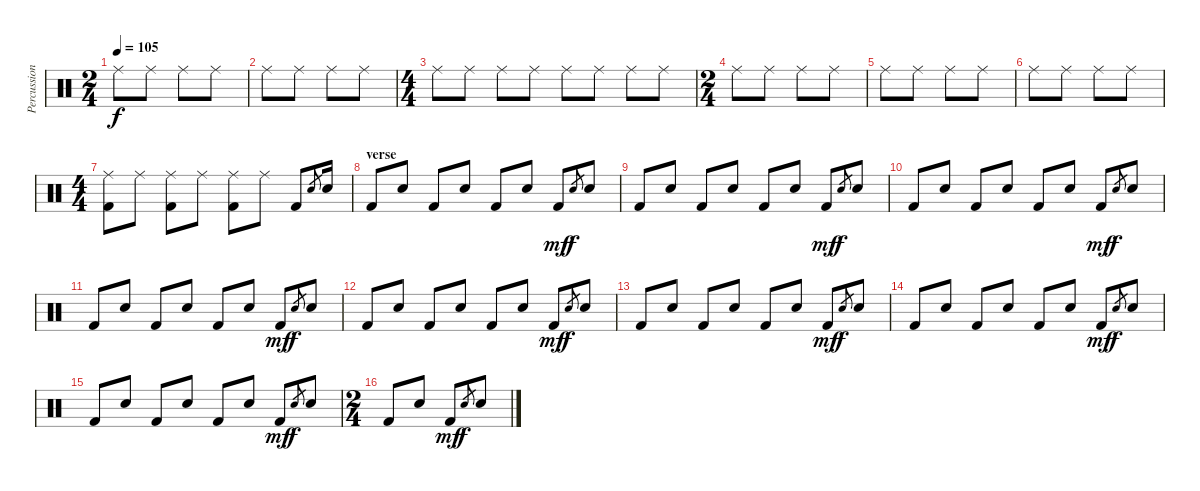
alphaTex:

\track ("Percussion" "Percussion") {instrument percussion}
\staff {score}
\articulation defaults
\ts (2 4)
\tempo 105
\clef neutral
\ks c "Ride (middle)".8{dy f} "Ride (middle)".8 "Ride (middle)".8 "Ride (middle)".8
|
"Ride (middle)".8 "Ride (middle)".8 "Ride (middle)".8 "Ride (middle)".8 |
\ts (4 4)
"Ride (middle)".8 "Ride (middle)".8 "Ride (middle)".8 "Ride (middle)".8 "Ride (middle)".8 "Ride (middle)".8 "Ride (middle)".8 "Ride (middle)".8 |
\ts (2 4)
"Ride (middle)".8 "Ride (middle)".8 "Ride (middle)".8 "Ride (middle)".8 |
"Ride (middle)".8 "Ride (middle)".8 "Ride (middle)".8 "Ride (middle)".8 |
"Ride (middle)".8 "Ride (middle)".8 "Ride (middle)".8 "Ride (middle)".8 |
\ts (4 4)
("Ride (middle)" "Kick (hit) 2").8 "Ride (middle)".8 ("Ride (middle)" "Kick (hit) 2").8 "Ride (middle)".8 ("Ride (middle)" "Kick (hit) 2").8 "Ride (middle)".8 "Kick (hit) 2".8 "Electric Snare (hit)".8{gr} "Electric Snare (hit)".16 |
\section ("" "verse")
"Kick (hit) 2".8 "Electric Snare (hit)".8 "Kick (hit) 2".8 "Electric Snare (hit)".8 "Kick (hit) 2".8 "Electric Snare (hit)".8 "Kick (hit) 2".8{dy mf} "Electric Snare (hit)".8{gr dy f} "Electric Snare (hit)".8 |
"Kick (hit) 2".8 "Electric Snare (hit)".8 "Kick (hit) 2".8 "Electric Snare (hit)".8 "Kick (hit) 2".8 "Electric Snare (hit)".8 "Kick (hit) 2".8{dy mf} "Electric Snare (hit)".8{gr dy f} "Electric Snare (hit)".8 |
"Kick (hit) 2".8 "Electric Snare (hit)".8 "Kick (hit) 2".8 "Electric Snare (hit)".8 "Kick (hit) 2".8 "Electric Snare (hit)".8 "Kick (hit) 2".8{dy mf} "Electric Snare (hit)".8{gr dy f} "Electric Snare (hit)".8 |
"Kick (hit) 2".8 "Electric Snare (hit)".8 "Kick (hit) 2".8 "Electric Snare (hit)".8 "Kick (hit) 2".8 "Electric Snare (hit)".8 "Kick (hit) 2".8{dy mf} "Electric Snare (hit)".8{gr dy f} "Electric Snare (hit)".8 |
"Kick (hit) 2".8 "Electric Snare (hit)".8 "Kick (hit) 2".8 "Electric Snare (hit)".8 "Kick (hit) 2".8 "Electric Snare (hit)".8 "Kick (hit) 2".8{dy mf} "Electric Snare (hit)".8{gr dy f} "Electric Snare (hit)".8 |
"Kick (hit) 2".8 "Electric Snare (hit)".8 "Kick (hit) 2".8 "Electric Snare (hit)".8 "Kick (hit) 2".8 "Electric Snare (hit)".8 "Kick (hit) 2".8{dy mf} "Electric Snare (hit)".8{gr dy f} "Electric Snare (hit)".8 |
"Kick (hit) 2".8 "Electric Snare (hit)".8 "Kick (hit) 2".8 "Electric Snare (hit)".8 "Kick (hit) 2".8 "Electric Snare (hit)".8 "Kick (hit) 2".8{dy mf} "Electric Snare (hit)".8{gr dy f} "Electric Snare (hit)".8 |
"Kick (hit) 2".8 "Electric Snare (hit)".8 "Kick (hit) 2".8 "Electric Snare (hit)".8 "Kick (hit) 2".8 "Electric Snare (hit)".8 "Kick (hit) 2".8{dy mf} "Electric Snare (hit)".8{gr dy f} "Electric Snare (hit)".8 |
\ts (2 4)
"Kick (hit) 2".8 "Electric Snare (hit)".8 "Kick (hit) 2".8{dy mf} "Electric Snare (hit)".8{gr dy f} "Electric Snare (hit)".8
